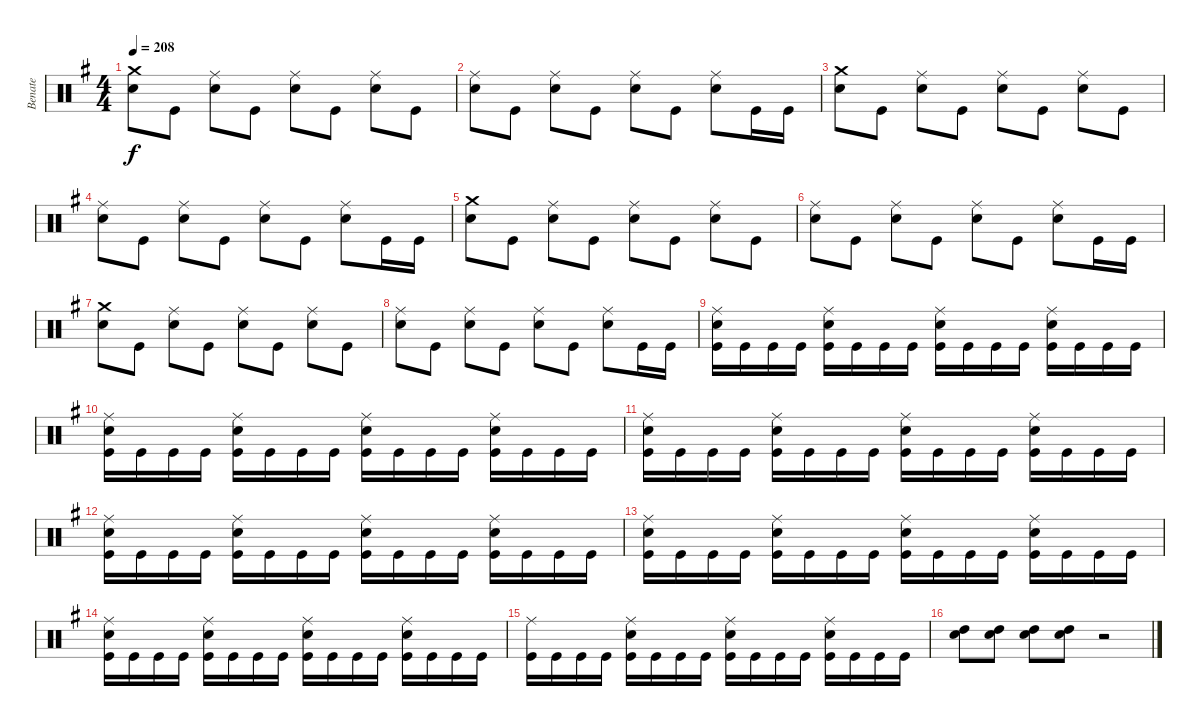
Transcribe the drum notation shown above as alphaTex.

\track ("Benate" "Benate") {instrument percussion}
\staff {score}
\articulation defaults
\ts (4 4)
\tempo 208
\clef neutral
\ks g
("Crash medium (hit)" "Snare (hit) 2").8{dy f} "Kick (hit)".8 ("Ride (middle)" "Snare (hit) 2").8 "Kick (hit)".8 ("Ride (middle)" "Snare (hit) 2").8 "Kick (hit)".8 ("Ride (middle)" "Snare (hit) 2").8 "Kick (hit)".8 |
("Ride (middle)" "Snare (hit) 2").8 "Kick (hit)".8 ("Ride (middle)" "Snare (hit) 2").8 "Kick (hit)".8 ("Ride (middle)" "Snare (hit) 2").8 "Kick (hit)".8 ("Ride (middle)" "Snare (hit) 2").8 "Kick (hit)".16 "Kick (hit)".16 |
("Crash medium (hit)" "Snare (hit) 2").8 "Kick (hit)".8 ("Ride (middle)" "Snare (hit) 2").8 "Kick (hit)".8 ("Ride (middle)" "Snare (hit) 2").8 "Kick (hit)".8 ("Ride (middle)" "Snare (hit) 2").8 "Kick (hit)".8 |
("Ride (middle)" "Snare (hit) 2").8 "Kick (hit)".8 ("Ride (middle)" "Snare (hit) 2").8 "Kick (hit)".8 ("Ride (middle)" "Snare (hit) 2").8 "Kick (hit)".8 ("Ride (middle)" "Snare (hit) 2").8 "Kick (hit)".16 "Kick (hit)".16 |
("Crash medium (hit)" "Snare (hit) 2").8 "Kick (hit)".8 ("Ride (middle)" "Snare (hit) 2").8 "Kick (hit)".8 ("Ride (middle)" "Snare (hit) 2").8 "Kick (hit)".8 ("Ride (middle)" "Snare (hit) 2").8 "Kick (hit)".8 |
("Ride (middle)" "Snare (hit) 2").8 "Kick (hit)".8 ("Ride (middle)" "Snare (hit) 2").8 "Kick (hit)".8 ("Ride (middle)" "Snare (hit) 2").8 "Kick (hit)".8 ("Ride (middle)" "Snare (hit) 2").8 "Kick (hit)".16 "Kick (hit)".16 |
("Crash medium (hit)" "Snare (hit) 2").8 "Kick (hit)".8 ("Ride (middle)" "Snare (hit) 2").8 "Kick (hit)".8 ("Ride (middle)" "Snare (hit) 2").8 "Kick (hit)".8 ("Ride (middle)" "Snare (hit) 2").8 "Kick (hit)".8 |
("Ride (middle)" "Snare (hit) 2").8 "Kick (hit)".8 ("Ride (middle)" "Snare (hit) 2").8 "Kick (hit)".8 ("Ride (middle)" "Snare (hit) 2").8 "Kick (hit)".8 ("Ride (middle)" "Snare (hit) 2").8 "Kick (hit)".16 "Kick (hit)".16 |
("Ride (middle)" "Snare (hit) 2" "Kick (hit)").16 "Kick (hit)".16 "Kick (hit)".16 "Kick (hit)".16 ("Ride (middle)" "Snare (hit) 2" "Kick (hit)").16 "Kick (hit)".16 "Kick (hit)".16 "Kick (hit)".16 ("Ride (middle)" "Snare (hit) 2" "Kick (hit)").16 "Kick (hit)".16 "Kick (hit)".16 "Kick (hit)".16 ("Ride (middle)" "Snare (hit) 2" "Kick (hit)").16 "Kick (hit)".16 "Kick (hit)".16 "Kick (hit)".16 |
("Ride (middle)" "Snare (hit) 2" "Kick (hit)").16 "Kick (hit)".16 "Kick (hit)".16 "Kick (hit)".16 ("Ride (middle)" "Snare (hit) 2" "Kick (hit)").16 "Kick (hit)".16 "Kick (hit)".16 "Kick (hit)".16 ("Ride (middle)" "Snare (hit) 2" "Kick (hit)").16 "Kick (hit)".16 "Kick (hit)".16 "Kick (hit)".16 ("Ride (middle)" "Snare (hit) 2" "Kick (hit)").16 "Kick (hit)".16 "Kick (hit)".16 "Kick (hit)".16 |
("Ride (middle)" "Snare (hit) 2" "Kick (hit)").16 "Kick (hit)".16 "Kick (hit)".16 "Kick (hit)".16 ("Ride (middle)" "Snare (hit) 2" "Kick (hit)").16 "Kick (hit)".16 "Kick (hit)".16 "Kick (hit)".16 ("Ride (middle)" "Snare (hit) 2" "Kick (hit)").16 "Kick (hit)".16 "Kick (hit)".16 "Kick (hit)".16 ("Ride (middle)" "Snare (hit) 2" "Kick (hit)").16 "Kick (hit)".16 "Kick (hit)".16 "Kick (hit)".16 |
("Ride (middle)" "Snare (hit) 2" "Kick (hit)").16 "Kick (hit)".16 "Kick (hit)".16 "Kick (hit)".16 ("Ride (middle)" "Snare (hit) 2" "Kick (hit)").16 "Kick (hit)".16 "Kick (hit)".16 "Kick (hit)".16 ("Ride (middle)" "Snare (hit) 2" "Kick (hit)").16 "Kick (hit)".16 "Kick (hit)".16 "Kick (hit)".16 ("Ride (middle)" "Snare (hit) 2" "Kick (hit)").16 "Kick (hit)".16 "Kick (hit)".16 "Kick (hit)".16 |
("Ride (middle)" "Snare (hit) 2" "Kick (hit)").16 "Kick (hit)".16 "Kick (hit)".16 "Kick (hit)".16 ("Ride (middle)" "Snare (hit) 2" "Kick (hit)").16 "Kick (hit)".16 "Kick (hit)".16 "Kick (hit)".16 ("Ride (middle)" "Snare (hit) 2" "Kick (hit)").16 "Kick (hit)".16 "Kick (hit)".16 "Kick (hit)".16 ("Ride (middle)" "Snare (hit) 2" "Kick (hit)").16 "Kick (hit)".16 "Kick (hit)".16 "Kick (hit)".16 |
("Ride (middle)" "Snare (hit) 2" "Kick (hit)").16 "Kick (hit)".16 "Kick (hit)".16 "Kick (hit)".16 ("Ride (middle)" "Snare (hit) 2" "Kick (hit)").16 "Kick (hit)".16 "Kick (hit)".16 "Kick (hit)".16 ("Ride (middle)" "Snare (hit) 2" "Kick (hit)").16 "Kick (hit)".16 "Kick (hit)".16 "Kick (hit)".16 ("Ride (middle)" "Snare (hit) 2" "Kick (hit)").16 "Kick (hit)".16 "Kick (hit)".16 "Kick (hit)".16 |
("Ride (middle)" "Kick (hit)").16 "Kick (hit)".16 "Kick (hit)".16 "Kick (hit)".16 ("Ride (middle)" "Snare (hit) 2" "Kick (hit)").16 "Kick (hit)".16 "Kick (hit)".16 "Kick (hit)".16 ("Ride (middle)" "Snare (hit) 2" "Kick (hit)").16 "Kick (hit)".16 "Kick (hit)".16 "Kick (hit)".16 ("Ride (middle)" "Snare (hit) 2" "Kick (hit)").16 "Kick (hit)".16 "Kick (hit)".16 "Kick (hit)".16 |
("High Tom (hit)" "Snare (hit) 2").8 ("High Tom (hit)" "Snare (hit) 2").8 ("High Tom (hit)" "Snare (hit) 2").8 ("High Tom (hit)" "Snare (hit) 2").8 r.2
